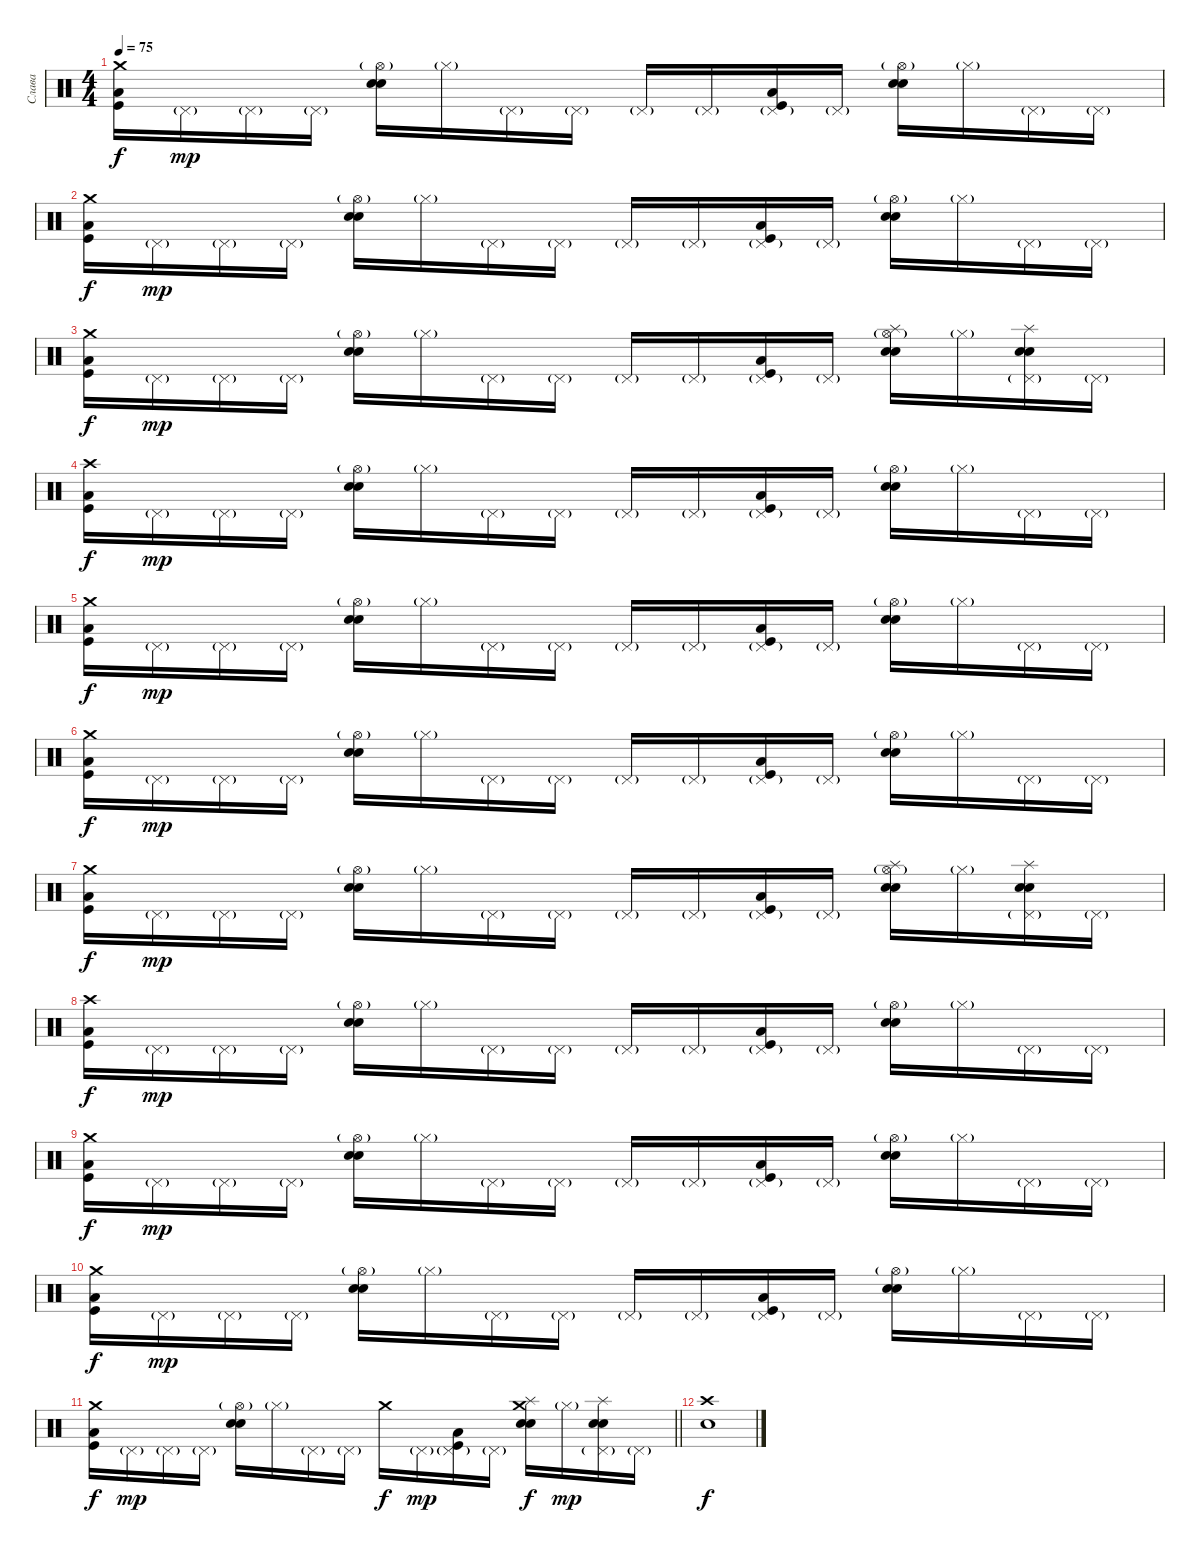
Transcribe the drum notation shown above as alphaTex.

\track ("Слава" "Слава") {instrument percussion}
\staff {score}
\articulation defaults
\ts (4 4)
\tempo 75
\clef neutral
\ks c
("Crash medium (hit)" "Low Tom (hit)" "Kick (hit)").16{dy f} "Pedal Hi-Hat (hit)"{g}.16{dy mp} "Pedal Hi-Hat (hit)"{g}.16 "Pedal Hi-Hat (hit)"{g}.16 ("Hi-Hat (open)"{g} "Electric Snare (hit)" "Snare (hit) 2").16 "Hi-Hat (closed)"{g}.16 "Pedal Hi-Hat (hit)"{g}.16 "Pedal Hi-Hat (hit)"{g}.16 "Pedal Hi-Hat (hit)"{g}.16 "Pedal Hi-Hat (hit)"{g}.16 ("Pedal Hi-Hat (hit)"{g} "Low Tom (hit)" "Kick (hit)").16 "Pedal Hi-Hat (hit)"{g}.16 ("Hi-Hat (open)"{g} "Electric Snare (hit)" "Snare (hit) 2").16 "Hi-Hat (closed)"{g}.16 "Pedal Hi-Hat (hit)"{g}.16 "Pedal Hi-Hat (hit)"{g}.16 |
("Crash medium (hit)" "Low Tom (hit)" "Kick (hit)").16{dy f} "Pedal Hi-Hat (hit)"{g}.16{dy mp} "Pedal Hi-Hat (hit)"{g}.16 "Pedal Hi-Hat (hit)"{g}.16 ("Hi-Hat (open)"{g} "Electric Snare (hit)" "Snare (hit) 2").16 "Hi-Hat (closed)"{g}.16 "Pedal Hi-Hat (hit)"{g}.16 "Pedal Hi-Hat (hit)"{g}.16 "Pedal Hi-Hat (hit)"{g}.16 "Pedal Hi-Hat (hit)"{g}.16 ("Pedal Hi-Hat (hit)"{g} "Low Tom (hit)" "Kick (hit)").16 "Pedal Hi-Hat (hit)"{g}.16 ("Hi-Hat (open)"{g} "Electric Snare (hit)" "Snare (hit) 2").16 "Hi-Hat (closed)"{g}.16 "Pedal Hi-Hat (hit)"{g}.16 "Pedal Hi-Hat (hit)"{g}.16 |
("Crash medium (hit)" "Low Tom (hit)" "Kick (hit)").16{dy f} "Pedal Hi-Hat (hit)"{g}.16{dy mp} "Pedal Hi-Hat (hit)"{g}.16 "Pedal Hi-Hat (hit)"{g}.16 ("Hi-Hat (open)"{g} "Electric Snare (hit)" "Snare (hit) 2").16 "Hi-Hat (closed)"{g}.16 "Pedal Hi-Hat (hit)"{g}.16 "Pedal Hi-Hat (hit)"{g}.16 "Pedal Hi-Hat (hit)"{g}.16 "Pedal Hi-Hat (hit)"{g}.16 ("Pedal Hi-Hat (hit)"{g} "Low Tom (hit)" "Kick (hit)").16 "Pedal Hi-Hat (hit)"{g}.16 ("Hi-Hat (open)"{g} "Splash (hit)" "Electric Snare (hit)" "Snare (hit) 2").16 "Hi-Hat (closed)"{g}.16 ("Pedal Hi-Hat (hit)"{g} "Splash (hit)" "Electric Snare (hit)" "Snare (hit) 2").16 "Pedal Hi-Hat (hit)"{g}.16 |
("Crash high (hit)" "Low Tom (hit)" "Kick (hit)").16{dy f} "Pedal Hi-Hat (hit)"{g}.16{dy mp} "Pedal Hi-Hat (hit)"{g}.16 "Pedal Hi-Hat (hit)"{g}.16 ("Hi-Hat (open)"{g} "Electric Snare (hit)" "Snare (hit) 2").16 "Hi-Hat (closed)"{g}.16 "Pedal Hi-Hat (hit)"{g}.16 "Pedal Hi-Hat (hit)"{g}.16 "Pedal Hi-Hat (hit)"{g}.16 "Pedal Hi-Hat (hit)"{g}.16 ("Pedal Hi-Hat (hit)"{g} "Low Tom (hit)" "Kick (hit)").16 "Pedal Hi-Hat (hit)"{g}.16 ("Hi-Hat (open)"{g} "Electric Snare (hit)" "Snare (hit) 2").16 "Hi-Hat (closed)"{g}.16 "Pedal Hi-Hat (hit)"{g}.16 "Pedal Hi-Hat (hit)"{g}.16 |
("Crash medium (hit)" "Low Tom (hit)" "Kick (hit)").16{dy f} "Pedal Hi-Hat (hit)"{g}.16{dy mp} "Pedal Hi-Hat (hit)"{g}.16 "Pedal Hi-Hat (hit)"{g}.16 ("Hi-Hat (open)"{g} "Electric Snare (hit)" "Snare (hit) 2").16 "Hi-Hat (closed)"{g}.16 "Pedal Hi-Hat (hit)"{g}.16 "Pedal Hi-Hat (hit)"{g}.16 "Pedal Hi-Hat (hit)"{g}.16 "Pedal Hi-Hat (hit)"{g}.16 ("Pedal Hi-Hat (hit)"{g} "Low Tom (hit)" "Kick (hit)").16 "Pedal Hi-Hat (hit)"{g}.16 ("Hi-Hat (open)"{g} "Electric Snare (hit)" "Snare (hit) 2").16 "Hi-Hat (closed)"{g}.16 "Pedal Hi-Hat (hit)"{g}.16 "Pedal Hi-Hat (hit)"{g}.16 |
("Crash medium (hit)" "Low Tom (hit)" "Kick (hit)").16{dy f} "Pedal Hi-Hat (hit)"{g}.16{dy mp} "Pedal Hi-Hat (hit)"{g}.16 "Pedal Hi-Hat (hit)"{g}.16 ("Hi-Hat (open)"{g} "Electric Snare (hit)" "Snare (hit) 2").16 "Hi-Hat (closed)"{g}.16 "Pedal Hi-Hat (hit)"{g}.16 "Pedal Hi-Hat (hit)"{g}.16 "Pedal Hi-Hat (hit)"{g}.16 "Pedal Hi-Hat (hit)"{g}.16 ("Pedal Hi-Hat (hit)"{g} "Low Tom (hit)" "Kick (hit)").16 "Pedal Hi-Hat (hit)"{g}.16 ("Hi-Hat (open)"{g} "Electric Snare (hit)" "Snare (hit) 2").16 "Hi-Hat (closed)"{g}.16 "Pedal Hi-Hat (hit)"{g}.16 "Pedal Hi-Hat (hit)"{g}.16 |
("Crash medium (hit)" "Low Tom (hit)" "Kick (hit)").16{dy f} "Pedal Hi-Hat (hit)"{g}.16{dy mp} "Pedal Hi-Hat (hit)"{g}.16 "Pedal Hi-Hat (hit)"{g}.16 ("Hi-Hat (open)"{g} "Electric Snare (hit)" "Snare (hit) 2").16 "Hi-Hat (closed)"{g}.16 "Pedal Hi-Hat (hit)"{g}.16 "Pedal Hi-Hat (hit)"{g}.16 "Pedal Hi-Hat (hit)"{g}.16 "Pedal Hi-Hat (hit)"{g}.16 ("Pedal Hi-Hat (hit)"{g} "Low Tom (hit)" "Kick (hit)").16 "Pedal Hi-Hat (hit)"{g}.16 ("Hi-Hat (open)"{g} "Splash (hit)" "Electric Snare (hit)" "Snare (hit) 2").16 "Hi-Hat (closed)"{g}.16 ("Pedal Hi-Hat (hit)"{g} "Splash (hit)" "Electric Snare (hit)" "Snare (hit) 2").16 "Pedal Hi-Hat (hit)"{g}.16 |
("Crash high (hit)" "Low Tom (hit)" "Kick (hit)").16{dy f} "Pedal Hi-Hat (hit)"{g}.16{dy mp} "Pedal Hi-Hat (hit)"{g}.16 "Pedal Hi-Hat (hit)"{g}.16 ("Hi-Hat (open)"{g} "Electric Snare (hit)" "Snare (hit) 2").16 "Hi-Hat (closed)"{g}.16 "Pedal Hi-Hat (hit)"{g}.16 "Pedal Hi-Hat (hit)"{g}.16 "Pedal Hi-Hat (hit)"{g}.16 "Pedal Hi-Hat (hit)"{g}.16 ("Pedal Hi-Hat (hit)"{g} "Low Tom (hit)" "Kick (hit)").16 "Pedal Hi-Hat (hit)"{g}.16 ("Hi-Hat (open)"{g} "Electric Snare (hit)" "Snare (hit) 2").16 "Hi-Hat (closed)"{g}.16 "Pedal Hi-Hat (hit)"{g}.16 "Pedal Hi-Hat (hit)"{g}.16 |
("Crash medium (hit)" "Low Tom (hit)" "Kick (hit)").16{dy f} "Pedal Hi-Hat (hit)"{g}.16{dy mp} "Pedal Hi-Hat (hit)"{g}.16 "Pedal Hi-Hat (hit)"{g}.16 ("Hi-Hat (open)"{g} "Electric Snare (hit)" "Snare (hit) 2").16 "Hi-Hat (closed)"{g}.16 "Pedal Hi-Hat (hit)"{g}.16 "Pedal Hi-Hat (hit)"{g}.16 "Pedal Hi-Hat (hit)"{g}.16 "Pedal Hi-Hat (hit)"{g}.16 ("Pedal Hi-Hat (hit)"{g} "Low Tom (hit)" "Kick (hit)").16 "Pedal Hi-Hat (hit)"{g}.16 ("Hi-Hat (open)"{g} "Electric Snare (hit)" "Snare (hit) 2").16 "Hi-Hat (closed)"{g}.16 "Pedal Hi-Hat (hit)"{g}.16 "Pedal Hi-Hat (hit)"{g}.16 |
("Crash medium (hit)" "Low Tom (hit)" "Kick (hit)").16{dy f} "Pedal Hi-Hat (hit)"{g}.16{dy mp} "Pedal Hi-Hat (hit)"{g}.16 "Pedal Hi-Hat (hit)"{g}.16 ("Hi-Hat (open)"{g} "Electric Snare (hit)" "Snare (hit) 2").16 "Hi-Hat (closed)"{g}.16 "Pedal Hi-Hat (hit)"{g}.16 "Pedal Hi-Hat (hit)"{g}.16 "Pedal Hi-Hat (hit)"{g}.16 "Pedal Hi-Hat (hit)"{g}.16 ("Pedal Hi-Hat (hit)"{g} "Low Tom (hit)" "Kick (hit)").16 "Pedal Hi-Hat (hit)"{g}.16 ("Hi-Hat (open)"{g} "Electric Snare (hit)" "Snare (hit) 2").16 "Hi-Hat (closed)"{g}.16 "Pedal Hi-Hat (hit)"{g}.16 "Pedal Hi-Hat (hit)"{g}.16 |
\barLineRight lightlight
("Crash medium (hit)" "Low Tom (hit)" "Kick (hit)").16{dy f} "Pedal Hi-Hat (hit)"{g}.16{dy mp} "Pedal Hi-Hat (hit)"{g}.16 "Pedal Hi-Hat (hit)"{g}.16 ("Hi-Hat (open)"{g} "Electric Snare (hit)" "Snare (hit) 2").16 "Hi-Hat (closed)"{g}.16 "Pedal Hi-Hat (hit)"{g}.16 "Pedal Hi-Hat (hit)"{g}.16 "Crash medium (hit)".16{dy f} "Pedal Hi-Hat (hit)"{g}.16{dy mp} ("Pedal Hi-Hat (hit)"{g} "Low Tom (hit)" "Kick (hit)").16 "Pedal Hi-Hat (hit)"{g}.16 ("Crash medium (hit)" "Splash (hit)" "Electric Snare (hit)" "Snare (hit) 2").16{dy f} "Hi-Hat (closed)"{g}.16{dy mp} ("Pedal Hi-Hat (hit)"{g} "Splash (hit)" "Electric Snare (hit)" "Snare (hit) 2").16 "Pedal Hi-Hat (hit)"{g}.16 |
("Crash high (hit)" "Electric Snare (hit)").1{dy f}
